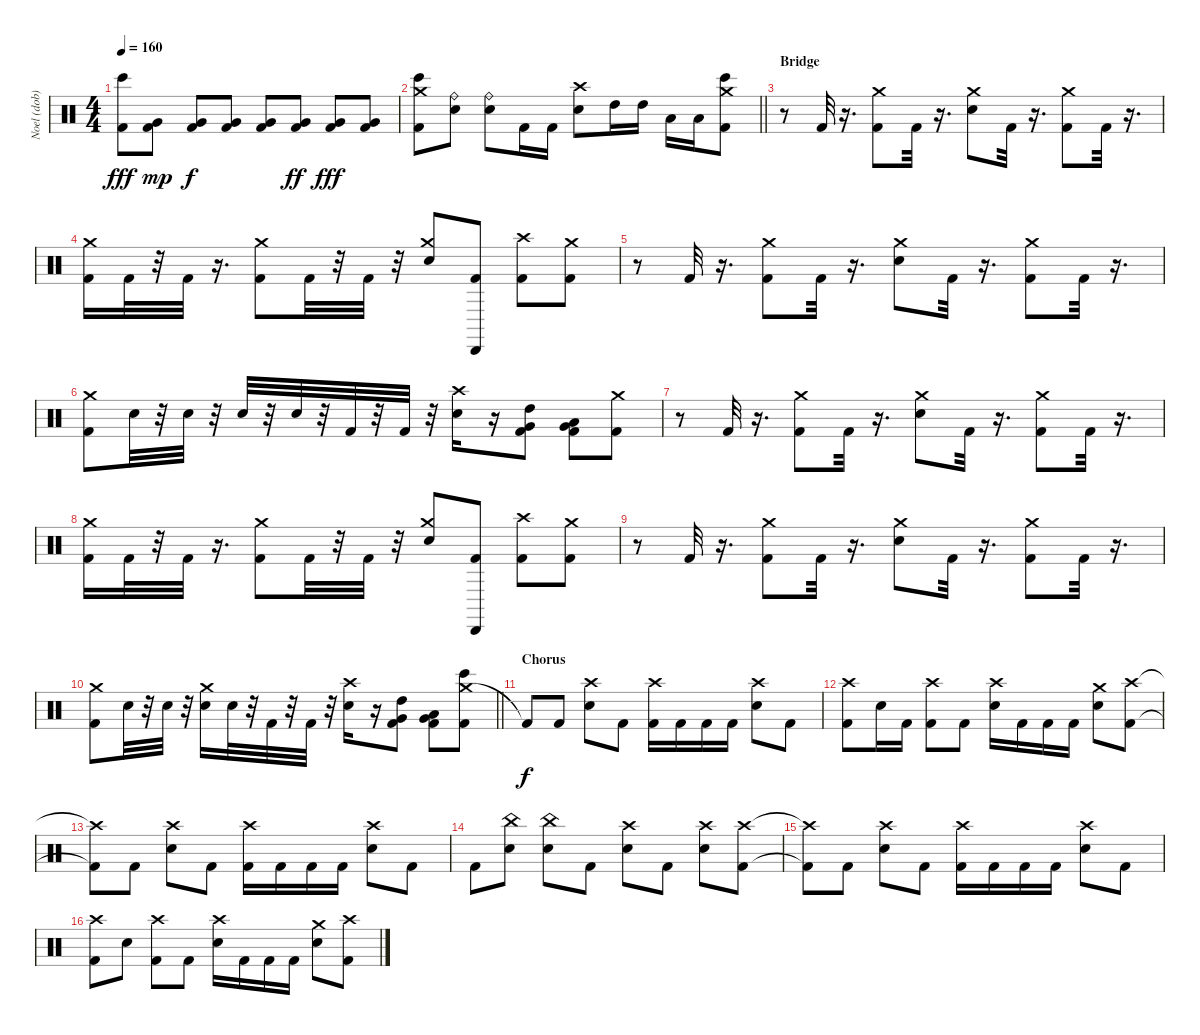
\track ("Noel (dob)" "Noel (dob)") {instrument percussion}
\staff {score}
\articulation defaults
\ts (4 4)
\tempo 160
\clef neutral
\ks c
("Bongo High (hit)" "Kick (hit) 2").8{dy fff} ("Kick (hit) 2" "Very Low Tom (hit)").8{dy mp} ("Kick (hit) 2" "Very Low Tom (hit)").8{dy f} ("Kick (hit) 2" "Very Low Tom (hit)").8 ("Kick (hit) 2" "Very Low Tom (hit)").8 ("Kick (hit) 2" "Very Low Tom (hit)").8{dy ff} ("Kick (hit) 2" "Very Low Tom (hit)").8{dy fff} ("Kick (hit) 2" "Very Low Tom (hit)").8 |
\barLineRight lightlight
("Kick (hit) 2" "Bongo High (hit)" "Crash medium (hit)").8 ("Ride (bell)" "Snare (hit) 2").8 ("Ride (bell)" "Snare (hit) 2").8 "Kick (hit) 2".16 "Kick (hit) 2".16 ("Snare (hit) 2" "Crash high (hit)").8 "High Tom (hit)".16 "High Tom (hit)".16 "Low Tom (hit)".16 "Low Tom (hit)".16 ("Crash medium (hit)" "Kick (hit) 2" "Bongo High (hit)").8 |
\section ("" "Bridge")
r.8 "Kick (hit) 2".32 r.16{d} ("Kick (hit) 2" "Crash medium (hit)").8 "Kick (hit) 2".32 r.16{d} ("Snare (hit) 2" "Crash medium (hit)").8 "Kick (hit) 2".32 r.16{d} ("Kick (hit) 2" "Crash medium (hit)").8 "Kick (hit) 2".32 r.16{d} |
("Crash medium (hit)" "Kick (hit) 2").16 "Kick (hit) 2".32 r.32 "Kick (hit) 2".32 r.16{d} ("Kick (hit) 2" "Crash medium (hit)").8 "Kick (hit) 2".32 r.32 "Kick (hit) 2".32 r.32 ("Crash medium (hit)" "Snare (hit) 2").8 ("Kick (hit) 2" "Cabasa (hit)").8 ("Kick (hit) 2" "Crash high (hit)").8 ("Crash medium (hit)" "Kick (hit) 2").8 |
r.8 "Kick (hit) 2".32 r.16{d} ("Kick (hit) 2" "Crash medium (hit)").8 "Kick (hit) 2".32 r.16{d} ("Snare (hit) 2" "Crash medium (hit)").8 "Kick (hit) 2".32 r.16{d} ("Kick (hit) 2" "Crash medium (hit)").8 "Kick (hit) 2".32 r.16{d} |
("Crash medium (hit)" "Kick (hit) 2").8 "Snare (hit) 2".32 r.32 "Snare (hit) 2".32 r.32 "Snare (hit) 2".32 r.32 "Snare (hit) 2".32 r.32 "Kick (hit) 2".32 r.32 "Kick (hit) 2".32 r.32 ("Snare (hit) 2" "Crash high (hit)").16 r.16 ("Kick (hit) 2" "High Tom (hit)" "Very Low Tom (hit)").8 ("Low Tom (hit)" "Kick (hit) 2" "Very Low Tom (hit)").8 ("Kick (hit) 2" "Crash medium (hit)").8 |
r.8 "Kick (hit) 2".32 r.16{d} ("Kick (hit) 2" "Crash medium (hit)").8 "Kick (hit) 2".32 r.16{d} ("Snare (hit) 2" "Crash medium (hit)").8 "Kick (hit) 2".32 r.16{d} ("Kick (hit) 2" "Crash medium (hit)").8 "Kick (hit) 2".32 r.16{d} |
("Kick (hit) 2" "Crash medium (hit)").16 "Kick (hit) 2".32 r.32 "Kick (hit) 2".32 r.16{d} ("Crash medium (hit)" "Kick (hit) 2").8 "Kick (hit) 2".32 r.32 "Kick (hit) 2".32 r.32 ("Snare (hit) 2" "Crash medium (hit)").8 ("Kick (hit) 2" "Cabasa (hit)").8 ("Kick (hit) 2" "Crash high (hit)").8 ("Kick (hit) 2" "Crash medium (hit)").8 |
r.8 "Kick (hit) 2".32 r.16{d} ("Crash medium (hit)" "Kick (hit) 2").8 "Kick (hit) 2".32 r.16{d} ("Snare (hit) 2" "Crash medium (hit)").8 "Kick (hit) 2".32 r.16{d} ("Kick (hit) 2" "Crash medium (hit)").8 "Kick (hit) 2".32 r.16{d} |
\barLineRight lightlight
("Kick (hit) 2" "Crash medium (hit)").8 "Snare (hit) 2".32 r.32 "Snare (hit) 2".32 r.32 ("Crash medium (hit)" "Snare (hit) 2").16 "Snare (hit) 2".32 r.32 "Kick (hit) 2".32 r.32 "Kick (hit) 2".32 r.32 ("Crash high (hit)" "Snare (hit) 2").16 r.16 ("High Tom (hit)" "Kick (hit) 2" "Very Low Tom (hit)").8 ("Kick (hit) 2" "Low Tom (hit)" "Very Low Tom (hit)").8 ("Crash medium (hit)" "Kick (hit) 2" "Bongo High (hit)").8 |
\section ("" "Chorus")
"Kick (hit) 2"{t}.8{dy f} "Kick (hit) 2".8 ("Crash high (hit)" "Electric Snare (hit)").8 "Kick (hit) 2".8 ("Crash high (hit)" "Kick (hit) 2").16 "Kick (hit) 2".16 "Kick (hit) 2".16 "Kick (hit) 2".16 ("Crash high (hit)" "Electric Snare (hit)").8 "Kick (hit) 2".8 |
("Crash high (hit)" "Kick (hit) 2").8 "Electric Snare (hit)".16 "Kick (hit) 2".16 ("Crash high (hit)" "Kick (hit) 2").8 "Kick (hit) 2".8 ("Crash high (hit)" "Electric Snare (hit)").16 "Kick (hit) 2".16 "Kick (hit) 2".16 "Kick (hit) 2".16 ("Crash medium (hit)" "Electric Snare (hit)").8 ("Crash high (hit)" "Kick (hit) 2").8 |
("Crash high (hit)"{t} "Kick (hit) 2"{t}).8 "Kick (hit) 2".8 ("Crash high (hit)" "Electric Snare (hit)").8 "Kick (hit) 2".8 ("Crash high (hit)" "Kick (hit) 2").16 "Kick (hit) 2".16 "Kick (hit) 2".16 "Kick (hit) 2".16 ("Crash high (hit)" "Electric Snare (hit)").8 "Kick (hit) 2".8 |
"Kick (hit) 2".8 ("China (hit)" "Electric Snare (hit)").8 ("China (hit)" "Electric Snare (hit)").8 "Kick (hit) 2".8 ("Crash high (hit)" "Electric Snare (hit)").8 "Kick (hit) 2".8 ("Crash high (hit)" "Electric Snare (hit)").8 ("Crash high (hit)" "Kick (hit) 2").8 |
("Crash high (hit)"{t} "Kick (hit) 2"{t}).8 "Kick (hit) 2".8 ("Crash high (hit)" "Electric Snare (hit)").8 "Kick (hit) 2".8 ("Crash high (hit)" "Kick (hit) 2").16 "Kick (hit) 2".16 "Kick (hit) 2".16 "Kick (hit) 2".16 ("Crash high (hit)" "Electric Snare (hit)").8 "Kick (hit) 2".8 |
("Crash high (hit)" "Kick (hit) 2").8 "Electric Snare (hit)".8 ("Crash high (hit)" "Kick (hit) 2").8 "Kick (hit) 2".8 ("Crash high (hit)" "Electric Snare (hit)").16 "Kick (hit) 2".16 "Kick (hit) 2".16 "Kick (hit) 2".16 ("Crash medium (hit)" "Electric Snare (hit)").8 ("Crash high (hit)" "Kick (hit) 2").8
